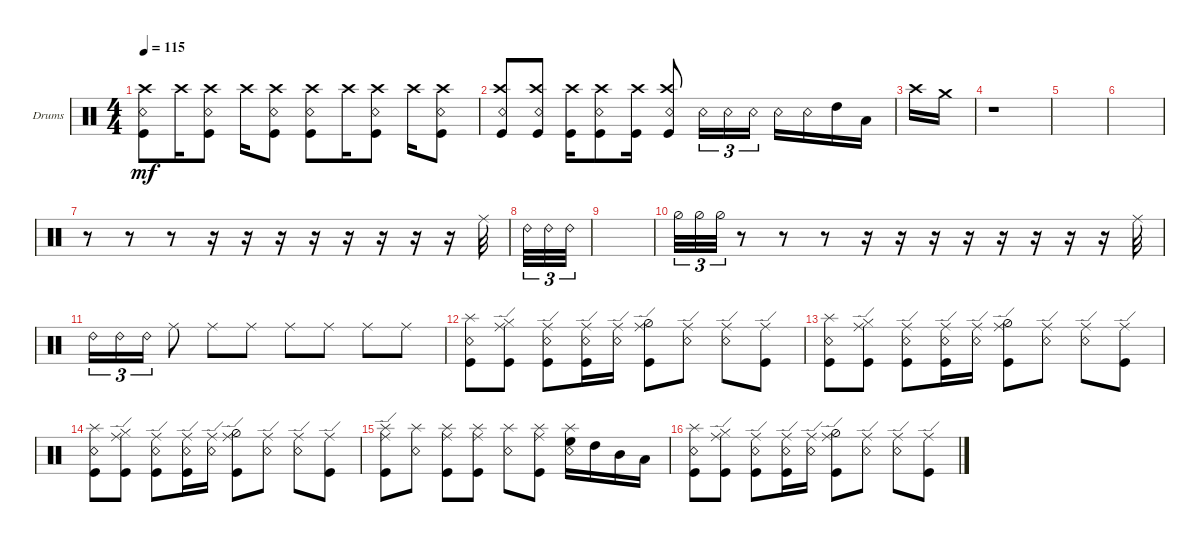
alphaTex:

\defaultSystemsLayout 4
\bracketExtendMode groupsimilarinstruments
\firstSystemTrackNameOrientation horizontal
\otherSystemsTrackNameOrientation horizontal
\track ("Drumkit" "Drums") {instrument percussion}
\staff {score}
\articulation defaults
\ts (4 4)
\tempo 115
\clef neutral
\scale
0.474178
\ks c
("Snare (rim shot)" "Crash high (hit)" "Kick (hit)").8{dy mf} "Crash high (hit)".16 ("Snare (rim shot)" "Crash high (hit)" "Kick (hit)").8 "Crash high (hit)".16 ("Snare (rim shot)" "Crash high (hit)" "Kick (hit)").8 ("Snare (rim shot)" "Crash high (hit)" "Kick (hit)").8 "Crash high (hit)".16 ("Snare (rim shot)" "Crash high (hit)" "Kick (hit)").8 "Crash high (hit)".16 ("Snare (rim shot)" "Crash high (hit)" "Kick (hit)").8 |
\scale
0.262911 ("Snare (rim shot)" "Crash high (hit)" "Kick (hit)").8 ("Snare (rim shot)" "Crash high (hit)" "Kick (hit)").8 ("Crash high (hit)" "Kick (hit)").16 ("Snare (rim shot)" "Crash high (hit)" "Kick (hit)").8 ("Crash high (hit)" "Kick (hit)").16 ("Snare (rim shot)" "Crash high (hit)" "Kick (hit)").8 "Snare (rim shot)".16{tu (3 2)} "Snare (rim shot)".16{tu (3 2)} "Snare (rim shot)".16{tu (3 2)} "Snare (rim shot)".16 "Snare (rim shot)".16 "High Tom (hit)".16 "Low Tom (hit)".16 |
\scale
0.262911 "Crash high (hit)".16 "Crash medium (hit)".16 |
\scale
0.333333 r.1 |
\scale
0.333333 |
\scale
0.333333 |
\scale
0.333333 r.8 r.8 r.8 r.16 r.16 r.16 r.16 r.16 r.16 r.16 r.16 "Ride (middle)".32 |
\scale
0.333333 "Ride (bell) 2".32{tu (3 2)} "Ride (bell) 2".32{tu (3 2)} "Ride (bell) 2".32{tu (3 2)} |
\scale
0.333333 |
\scale
0.333333 "Hi-Hat (half)".32{tu (3 2)} "Hi-Hat (half)".32{tu (3 2)} "Hi-Hat (half)".32{tu (3 2)} r.8 r.8 r.8 r.16 r.16 r.16 r.16 r.16 r.16 r.16 r.16 "Ride (middle)".32 |
\scale
0.333333 "Ride (bell) 2".16{tu (3 2)} "Ride (bell) 2".16{tu (3 2)} "Ride (bell) 2".16{tu (3 2)} "Ride (middle)".8 "Ride (middle)".8 "Ride (middle)".8 "Ride (middle)".8 "Ride (middle)".8 "Ride (middle)".8 "Ride (middle)".8 |
\scale
0.333333 ("Kick (hit)" "Splash (hit)" "Snare (rim shot)").8 ("Kick (hit)" "Hi-Hat (closed)" "Ride (edge)").8 ("Kick (hit)" "Snare (rim shot)" "Ride (edge)").8 ("Kick (hit)" "Snare (rim shot)" "Ride (edge)").16 ("Snare (rim shot)" "Ride (edge)").16 ("Kick (hit)" "Ride (edge)" "Hi-Hat (half)").8 ("Snare (rim shot)" "Ride (edge)").8 ("Snare (rim shot)" "Ride (edge)").8 ("Kick (hit)" "Ride (edge)").8 |
\scale
0.333333 ("Kick (hit)" "Splash (hit)" "Snare (rim shot)").8 ("Kick (hit)" "Hi-Hat (closed)" "Ride (edge)").8 ("Kick (hit)" "Snare (rim shot)" "Ride (edge)").8 ("Kick (hit)" "Snare (rim shot)" "Ride (edge)").16 ("Snare (rim shot)" "Ride (edge)").16 ("Kick (hit)" "Ride (edge)" "Hi-Hat (half)").8 ("Snare (rim shot)" "Ride (edge)").8 ("Snare (rim shot)" "Ride (edge)").8 ("Kick (hit)" "Ride (edge)").8 |
\scale
0.333333 ("Kick (hit)" "Splash (hit)" "Snare (rim shot)").8 ("Kick (hit)" "Hi-Hat (closed)" "Ride (edge)").8 ("Kick (hit)" "Snare (rim shot)" "Ride (edge)").8 ("Kick (hit)" "Snare (rim shot)" "Ride (edge)").16 ("Snare (rim shot)" "Ride (edge)").16 ("Kick (hit)" "Ride (edge)" "Hi-Hat (half)").8 ("Snare (rim shot)" "Ride (edge)").8 ("Snare (rim shot)" "Ride (edge)").8 ("Kick (hit)" "Ride (edge)").8 |
\scale
0.333333 ("Ride (edge)" "Kick (hit)" "Splash (hit)").8 ("Snare (rim shot)" "Splash (hit)").8 ("Ride (middle)" "Kick (hit)" "Splash (hit)").8 ("Ride (middle)" "Kick (hit)" "Splash (hit)").8 ("Snare (rim shot)" "Splash (hit)").8 ("Ride (middle)" "Kick (hit)" "Splash (hit)").8 ("Snare (rim shot)" "Splash (hit)" "High Floor Tom (hit)").16 "High Tom (hit)".16 "Mid Tom (hit)".16 "Low Tom (hit)".16 |
\scale
0.333333 ("Kick (hit)" "Splash (hit)" "Snare (rim shot)").8 ("Kick (hit)" "Hi-Hat (closed)" "Ride (edge)").8 ("Kick (hit)" "Snare (rim shot)" "Ride (edge)").8 ("Kick (hit)" "Snare (rim shot)" "Ride (edge)").16 ("Snare (rim shot)" "Ride (edge)").16 ("Kick (hit)" "Ride (edge)" "Hi-Hat (half)").8 ("Snare (rim shot)" "Ride (edge)").8 ("Snare (rim shot)" "Ride (edge)").8 ("Kick (hit)" "Ride (edge)").8
